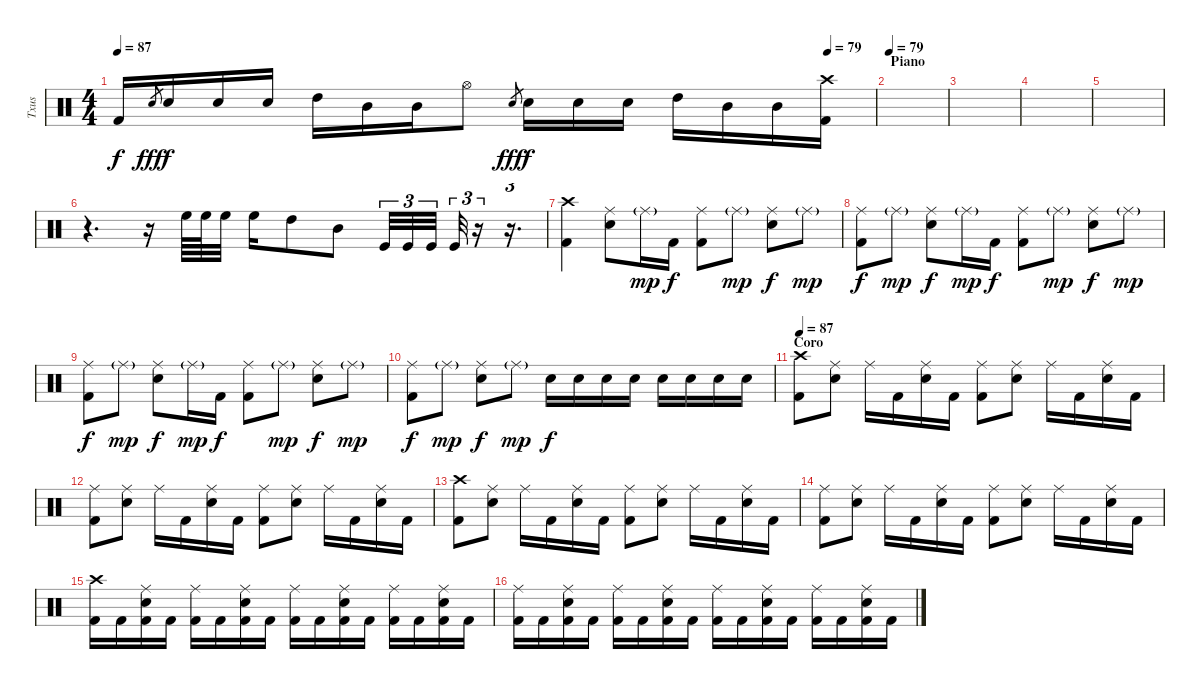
\track ("Txus" "Txus") {instrument percussion}
\staff {score}
\articulation defaults
\ts (4 4)
\tempo 87
\tempo (79 0.9375)
\clef neutral
\ks c "Kick (hit) 2"{t}.16{dy f} "Electric Snare (hit)".8{gr dy fff} "Electric Snare (hit)".16{dy f} "Electric Snare (hit)".16 "Electric Snare (hit)".16 "High Tom (hit)".16 "Mid Tom (hit)".16 "Mid Tom (hit)".16 "Hi-Hat (open)".8 "Electric Snare (hit)".8{gr dy fff} "Electric Snare (hit)".16{dy f} "Electric Snare (hit)".16 "Electric Snare (hit)".16 "High Tom (hit)".16 "Mid Tom (hit)".16 "Mid Tom (hit)".16
("Kick (hit) 2" "Crash high (hit)").16 |
\section ("" "Piano")
\tempo 79
|
|
|
|
r.4{d} r.16 "High Floor Tom (hit)".64 "High Floor Tom (hit)".64 "High Floor Tom (hit)".32 "High Floor Tom (hit)".16 "High Tom (hit)".8 "Mid Tom (hit)".8 "Kick (hit)".32{tu (3 2) volume 10} "Kick (hit)".32{tu (3 2)} "Kick (hit)".32{tu (3 2)} "Kick (hit)".32{tu (3 2)} r.16{tu (3 2)} r.16{d tu (3 2)} |
("Kick (hit) 2" "Crash high (hit)").4{volume 16} ("Electric Snare (hit)" "Ride (middle)").8 "Ride (middle)"{g}.16{dy mp} "Kick (hit) 2".16{dy f} ("Kick (hit) 2" "Ride (middle)").8 "Ride (middle)"{g}.8{dy mp} ("Electric Snare (hit)" "Ride (middle)").8{dy f} "Ride (middle)"{g}.8{dy mp} |
("Kick (hit) 2" "Ride (middle)").8{dy f} "Ride (middle)"{g}.8{dy mp} ("Electric Snare (hit)" "Ride (middle)").8{dy f} "Ride (middle)"{g}.16{dy mp} "Kick (hit) 2".16{dy f} ("Kick (hit) 2" "Ride (middle)").8 "Ride (middle)"{g}.8{dy mp} ("Electric Snare (hit)" "Ride (middle)").8{dy f} "Ride (middle)"{g}.8{dy mp} |
("Kick (hit) 2" "Ride (middle)").8{dy f} "Ride (middle)"{g}.8{dy mp} ("Electric Snare (hit)" "Ride (middle)").8{dy f} "Ride (middle)"{g}.16{dy mp} "Kick (hit) 2".16{dy f} ("Kick (hit) 2" "Ride (middle)").8 "Ride (middle)"{g}.8{dy mp} ("Electric Snare (hit)" "Ride (middle)").8{dy f} "Ride (middle)"{g}.8{dy mp} |
("Kick (hit) 2" "Ride (middle)").8{dy f} "Ride (middle)"{g}.8{dy mp} ("Electric Snare (hit)" "Ride (middle)").8{dy f} "Ride (middle)"{g}.8{dy mp} "Electric Snare (hit)".16{dy f} "Electric Snare (hit)".16 "Electric Snare (hit)".16 "Electric Snare (hit)".16 "Electric Snare (hit)".16 "Electric Snare (hit)".16 "Electric Snare (hit)".16 "Electric Snare (hit)".16 |
\section ("" "Coro")
\tempo 87
("Kick (hit) 2" "Crash high (hit)").8{volume 16} ("Electric Snare (hit)" "Ride (middle)").8 "Ride (middle)".16 "Kick (hit) 2".16 ("Electric Snare (hit)" "Ride (middle)").16 "Kick (hit) 2".16 ("Kick (hit) 2" "Ride (middle)").8 ("Electric Snare (hit)" "Ride (middle)").8 "Ride (middle)".16 "Kick (hit) 2".16 ("Electric Snare (hit)" "Ride (middle)").16 "Kick (hit) 2".16 |
("Kick (hit) 2" "Ride (middle)").8 ("Electric Snare (hit)" "Ride (middle)").8 "Ride (middle)".16 "Kick (hit) 2".16 ("Electric Snare (hit)" "Ride (middle)").16 "Kick (hit) 2".16 ("Kick (hit) 2" "Ride (middle)").8 ("Electric Snare (hit)" "Ride (middle)").8 "Ride (middle)".16 "Kick (hit) 2".16 ("Electric Snare (hit)" "Ride (middle)").16 "Kick (hit) 2".16 |
("Kick (hit) 2" "Crash high (hit)").8 ("Electric Snare (hit)" "Ride (middle)").8 "Ride (middle)".16 "Kick (hit) 2".16 ("Electric Snare (hit)" "Ride (middle)").16 "Kick (hit) 2".16 ("Kick (hit) 2" "Ride (middle)").8 ("Electric Snare (hit)" "Ride (middle)").8 "Ride (middle)".16 "Kick (hit) 2".16 ("Electric Snare (hit)" "Ride (middle)").16 "Kick (hit) 2".16 |
("Kick (hit) 2" "Ride (middle)").8 ("Electric Snare (hit)" "Ride (middle)").8 "Ride (middle)".16 "Kick (hit) 2".16 ("Electric Snare (hit)" "Ride (middle)").16 "Kick (hit) 2".16 ("Kick (hit) 2" "Ride (middle)").8 ("Electric Snare (hit)" "Ride (middle)").8 "Ride (middle)".16 "Kick (hit) 2".16 ("Electric Snare (hit)" "Ride (middle)").16 "Kick (hit) 2".16 |
("Kick (hit) 2" "Crash high (hit)").16 "Kick (hit) 2".16 ("Kick (hit) 2" "Electric Snare (hit)" "Ride (middle)").16 "Kick (hit) 2".16 ("Kick (hit) 2" "Ride (middle)").16 "Kick (hit) 2".16 ("Kick (hit) 2" "Electric Snare (hit)" "Ride (middle)").16 "Kick (hit) 2".16 ("Kick (hit) 2" "Ride (middle)").16 "Kick (hit) 2".16 ("Kick (hit) 2" "Electric Snare (hit)" "Ride (middle)").16 "Kick (hit) 2".16 ("Kick (hit) 2" "Ride (middle)").16 "Kick (hit) 2".16 ("Kick (hit) 2" "Electric Snare (hit)" "Ride (middle)").16 "Kick (hit) 2".16 |
("Kick (hit) 2" "Ride (middle)").16 "Kick (hit) 2".16 ("Kick (hit) 2" "Electric Snare (hit)" "Ride (middle)").16 "Kick (hit) 2".16 ("Kick (hit) 2" "Ride (middle)").16 "Kick (hit) 2".16 ("Kick (hit) 2" "Electric Snare (hit)" "Ride (middle)").16 "Kick (hit) 2".16 ("Kick (hit) 2" "Ride (middle)").16 "Kick (hit) 2".16 ("Kick (hit) 2" "Electric Snare (hit)" "Ride (middle)").16 "Kick (hit) 2".16 ("Kick (hit) 2" "Ride (middle)").16 "Kick (hit) 2".16 ("Kick (hit) 2" "Electric Snare (hit)" "Ride (middle)").16 "Kick (hit) 2".16
